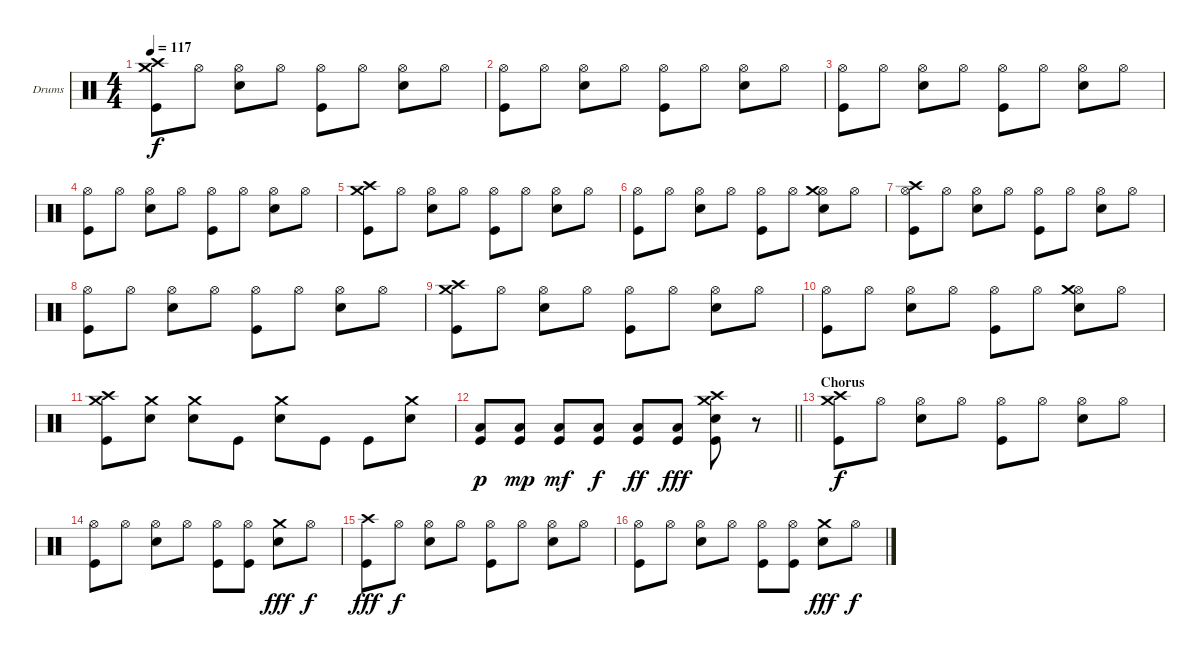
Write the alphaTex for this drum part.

\bracketExtendMode groupsimilarinstruments
\firstSystemTrackNameOrientation horizontal
\otherSystemsTrackNameOrientation horizontal
\track ("Drumkit" "Drums") {instrument percussion}
\staff {score}
\articulation defaults
\ts (4 4)
\tempo 117
\clef neutral
\ks c
("Crash medium (hit)" "Crash high (hit)" "Kick (hit)").8{dy f} "Hi-Hat (open)".8 ("Hi-Hat (open)" "Snare (hit) 2").8 "Hi-Hat (open)".8 ("Hi-Hat (open)" "Kick (hit)").8 "Hi-Hat (open)".8 ("Hi-Hat (open)" "Snare (hit) 2").8 "Hi-Hat (open)".8 |
("Hi-Hat (open)" "Kick (hit)").8 "Hi-Hat (open)".8 ("Hi-Hat (open)" "Snare (hit) 2").8 "Hi-Hat (open)".8 ("Hi-Hat (open)" "Kick (hit)").8 "Hi-Hat (open)".8 ("Hi-Hat (open)" "Snare (hit) 2").8 "Hi-Hat (open)".8 |
("Hi-Hat (open)" "Kick (hit)").8 "Hi-Hat (open)".8 ("Hi-Hat (open)" "Snare (hit) 2").8 "Hi-Hat (open)".8 ("Hi-Hat (open)" "Kick (hit)").8 "Hi-Hat (open)".8 ("Hi-Hat (open)" "Snare (hit) 2").8 "Hi-Hat (open)".8 |
("Hi-Hat (open)" "Kick (hit)").8 "Hi-Hat (open)".8 ("Hi-Hat (open)" "Snare (hit) 2").8 "Hi-Hat (open)".8 ("Hi-Hat (open)" "Kick (hit)").8 "Hi-Hat (open)".8 ("Hi-Hat (open)" "Snare (hit) 2").8 "Hi-Hat (open)".8 |
("Crash medium (hit)" "Crash high (hit)" "Kick (hit)").8 "Hi-Hat (open)".8 ("Hi-Hat (open)" "Snare (hit) 2").8 "Hi-Hat (open)".8 ("Hi-Hat (open)" "Kick (hit)").8 "Hi-Hat (open)".8 ("Hi-Hat (open)" "Snare (hit) 2").8 "Hi-Hat (open)".8 |
("Hi-Hat (open)" "Kick (hit)").8 "Hi-Hat (open)".8 ("Hi-Hat (open)" "Snare (hit) 2").8 "Hi-Hat (open)".8 ("Hi-Hat (open)" "Kick (hit)").8 "Hi-Hat (open)".8 ("Hi-Hat (open)" "Crash medium (hit)" "Snare (hit) 2").8 "Hi-Hat (open)".8 |
("Hi-Hat (open)" "Crash high (hit)" "Kick (hit)").8 "Hi-Hat (open)".8 ("Hi-Hat (open)" "Snare (hit) 2").8 "Hi-Hat (open)".8 ("Hi-Hat (open)" "Kick (hit)").8 "Hi-Hat (open)".8 ("Hi-Hat (open)" "Snare (hit) 2").8 "Hi-Hat (open)".8 |
("Hi-Hat (open)" "Kick (hit)").8 "Hi-Hat (open)".8 ("Hi-Hat (open)" "Snare (hit) 2").8 "Hi-Hat (open)".8 ("Hi-Hat (open)" "Kick (hit)").8 "Hi-Hat (open)".8 ("Hi-Hat (open)" "Snare (hit) 2").8 "Hi-Hat (open)".8 |
("Crash medium (hit)" "Crash high (hit)" "Kick (hit)").8 "Hi-Hat (open)".8 ("Hi-Hat (open)" "Snare (hit) 2").8 "Hi-Hat (open)".8 ("Hi-Hat (open)" "Kick (hit)").8 "Hi-Hat (open)".8 ("Hi-Hat (open)" "Snare (hit) 2").8 "Hi-Hat (open)".8 |
("Hi-Hat (open)" "Kick (hit)").8 "Hi-Hat (open)".8 ("Hi-Hat (open)" "Snare (hit) 2").8 "Hi-Hat (open)".8 ("Hi-Hat (open)" "Kick (hit)").8 "Hi-Hat (open)".8 ("Hi-Hat (open)" "Crash medium (hit)" "Snare (hit) 2").8 "Hi-Hat (open)".8 |
("Crash medium (hit)" "Crash high (hit)" "Kick (hit)").8 ("Crash medium (hit)" "Snare (hit) 2").8 ("Crash medium (hit)" "Snare (hit) 2").8 "Kick (hit)".8 ("Crash medium (hit)" "Snare (hit) 2").8 "Kick (hit)".8 "Kick (hit)".8 ("Crash medium (hit)" "Snare (hit) 2").8 |
\barLineRight lightlight
("Low Tom (hit)" "Kick (hit)").8{dy p} ("Low Tom (hit)" "Kick (hit)").8{dy mp} ("Low Tom (hit)" "Kick (hit)").8{dy mf} ("Low Tom (hit)" "Kick (hit)").8{dy f} ("Low Tom (hit)" "Kick (hit)").8{dy ff} ("Low Tom (hit)" "Kick (hit)").8{dy fff} ("Kick (hit)" "Crash high (hit)" "Crash medium (hit)" "Snare (hit) 2").8 r.8 |
\section ("" "Chorus")
("Crash medium (hit)" "Crash high (hit)" "Kick (hit)").8{dy f} "Hi-Hat (open)".8 ("Hi-Hat (open)" "Snare (hit) 2").8 "Hi-Hat (open)".8 ("Hi-Hat (open)" "Kick (hit)").8 "Hi-Hat (open)".8 ("Hi-Hat (open)" "Snare (hit) 2").8 "Hi-Hat (open)".8 |
("Hi-Hat (open)" "Kick (hit)").8 "Hi-Hat (open)".8 ("Hi-Hat (open)" "Snare (hit) 2").8 "Hi-Hat (open)".8 ("Hi-Hat (open)" "Kick (hit)").8 ("Hi-Hat (open)" "Kick (hit)").8 ("Crash medium (hit)" "Snare (hit) 2").8{dy fff} "Hi-Hat (open)".8{dy f} |
("Crash high (hit)" "Kick (hit)").8{dy fff} "Hi-Hat (open)".8{dy f} ("Hi-Hat (open)" "Snare (hit) 2").8 "Hi-Hat (open)".8 ("Hi-Hat (open)" "Kick (hit)").8 "Hi-Hat (open)".8 ("Hi-Hat (open)" "Snare (hit) 2").8 "Hi-Hat (open)".8 |
("Hi-Hat (open)" "Kick (hit)").8 "Hi-Hat (open)".8 ("Hi-Hat (open)" "Snare (hit) 2").8 "Hi-Hat (open)".8 ("Hi-Hat (open)" "Kick (hit)").8 ("Hi-Hat (open)" "Kick (hit)").8 ("Crash medium (hit)" "Snare (hit) 2").8{dy fff} "Hi-Hat (open)".8{dy f}
